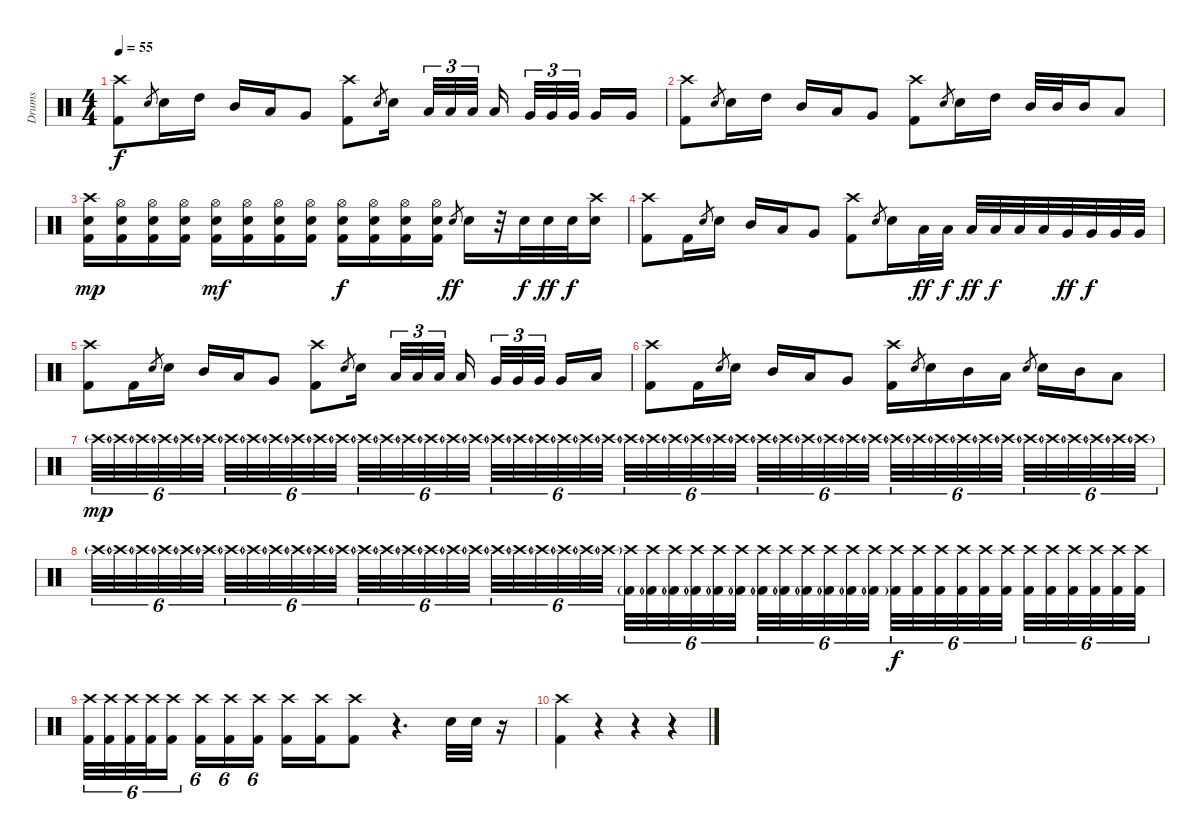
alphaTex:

\track ("Drums" "Drums") {instrument percussion}
\staff {score}
\articulation defaults
\ts (4 4)
\tempo 55
\clef neutral
\ks c
("Crash high (hit)" "Kick (hit) 2").8{dy f} "Snare (hit) 2".8{gr} "Snare (hit) 2".16 "High Tom (hit)".16 "Mid Tom (hit)".16 "Low Tom (hit)".16 "Very Low Tom (hit)".8 ("Crash high (hit)" "Kick (hit) 2").8 "Snare (hit) 2".8{gr} "Snare (hit) 2".16 "Low Tom (hit)".32{tu (3 2)} "Low Tom (hit)".32{tu (3 2)} "Low Tom (hit)".32{tu (3 2)} "Low Tom (hit)".16 "Very Low Tom (hit)".32{tu (3 2)} "Very Low Tom (hit)".32{tu (3 2)} "Very Low Tom (hit)".32{tu (3 2)} "Very Low Tom (hit)".16 "Very Low Tom (hit)".16 |
("Crash high (hit)" "Kick (hit) 2").8 "Snare (hit) 2".8{gr} "Snare (hit) 2".16 "High Tom (hit)".16 "Mid Tom (hit)".16 "Low Tom (hit)".16 "Very Low Tom (hit)".8 ("Crash high (hit)" "Kick (hit) 2").8 "Snare (hit) 2".8{gr} "Snare (hit) 2".16 "High Tom (hit)".16 "Mid Tom (hit)".32 "Mid Tom (hit)".32 "Mid Tom (hit)".16 "Low Tom (hit)".8 |
("Crash high (hit)" "Snare (hit) 2" "Kick (hit) 2").16{dy mp} ("Hi-Hat (open)" "Snare (hit) 2" "Kick (hit) 2").16 ("Hi-Hat (open)" "Snare (hit) 2" "Kick (hit) 2").16 ("Hi-Hat (open)" "Snare (hit) 2" "Kick (hit) 2").16 ("Hi-Hat (open)" "Snare (hit) 2" "Kick (hit) 2").16{dy mf} ("Hi-Hat (open)" "Snare (hit) 2" "Kick (hit) 2").16 ("Hi-Hat (open)" "Snare (hit) 2" "Kick (hit) 2").16 ("Hi-Hat (open)" "Snare (hit) 2" "Kick (hit) 2").16 ("Hi-Hat (open)" "Snare (hit) 2" "Kick (hit) 2").16{dy f} ("Hi-Hat (open)" "Snare (hit) 2" "Kick (hit) 2").16 ("Hi-Hat (open)" "Snare (hit) 2" "Kick (hit) 2").16 ("Hi-Hat (open)" "Snare (hit) 2" "Kick (hit) 2").16 "Snare (hit) 2".8{gr dy ff} "Snare (hit) 2".16 r.32 "Snare (hit) 2".32{dy f} "Snare (hit) 2".32{dy ff} "Snare (hit) 2".32{dy f} ("Crash high (hit)" "Snare (hit) 2").16 |
("Crash high (hit)" "Kick (hit) 2").8 "Kick (hit) 2".16 "Snare (hit) 2".8{gr} "Snare (hit) 2".16 "Mid Tom (hit)".16 "Low Tom (hit)".16 "Very Low Tom (hit)".8 ("Crash high (hit)" "Kick (hit) 2").8 "Snare (hit) 2".8{gr} "Snare (hit) 2".16 "Low Tom (hit)".32{dy ff} "Low Tom (hit)".32{dy f} "Low Tom (hit)".32{dy ff} "Low Tom (hit)".32{dy f} "Low Tom (hit)".32 "Low Tom (hit)".32 "Very Low Tom (hit)".32{dy ff} "Very Low Tom (hit)".32{dy f} "Very Low Tom (hit)".32 "Very Low Tom (hit)".32 |
("Crash high (hit)" "Kick (hit) 2").8 "Kick (hit) 2".16 "Snare (hit) 2".8{gr} "Snare (hit) 2".16 "Mid Tom (hit)".16 "Low Tom (hit)".16 "Very Low Tom (hit)".8 ("Crash high (hit)" "Kick (hit) 2").8 "Snare (hit) 2".8{gr} "Snare (hit) 2".16 "Low Tom (hit)".32{tu (3 2)} "Low Tom (hit)".32{tu (3 2)} "Low Tom (hit)".32{tu (3 2)} "Low Tom (hit)".16 "Very Low Tom (hit)".32{tu (3 2)} "Very Low Tom (hit)".32{tu (3 2)} "Very Low Tom (hit)".32{tu (3 2)} "Very Low Tom (hit)".16 "Low Floor Tom (hit)".16 |
("Crash high (hit)" "Kick (hit) 2").8 "Kick (hit) 2".16 "Snare (hit) 2".8{gr} "Snare (hit) 2".16 "Mid Tom (hit)".16 "Low Tom (hit)".16 "Very Low Tom (hit)".8 ("Crash high (hit)" "Kick (hit) 2").16 "Snare (hit) 2".8{gr} "Snare (hit) 2".16 "Mid Tom (hit)".16 "Low Tom (hit)".16 "Snare (hit) 2".8{gr} "Snare (hit) 2".16 "Mid Tom (hit)".16 "Low Tom (hit)".8 |
"Crash high (hit)"{g}.32{tu (6 4) dy mp} "Crash high (hit)"{g}.32{tu (6 4)} "Crash high (hit)"{g}.32{tu (6 4)} "Crash high (hit)"{g}.32{tu (6 4)} "Crash high (hit)"{g}.32{tu (6 4)} "Crash high (hit)"{g}.32{tu (6 4)} "Crash high (hit)"{g}.32{tu (6 4)} "Crash high (hit)"{g}.32{tu (6 4)} "Crash high (hit)"{g}.32{tu (6 4)} "Crash high (hit)"{g}.32{tu (6 4)} "Crash high (hit)"{g}.32{tu (6 4)} "Crash high (hit)"{g}.32{tu (6 4)} "Crash high (hit)"{g}.32{tu (6 4)} "Crash high (hit)"{g}.32{tu (6 4)} "Crash high (hit)"{g}.32{tu (6 4)} "Crash high (hit)"{g}.32{tu (6 4)} "Crash high (hit)"{g}.32{tu (6 4)} "Crash high (hit)"{g}.32{tu (6 4)} "Crash high (hit)"{g}.32{tu (6 4)} "Crash high (hit)"{g}.32{tu (6 4)} "Crash high (hit)"{g}.32{tu (6 4)} "Crash high (hit)"{g}.32{tu (6 4)} "Crash high (hit)"{g}.32{tu (6 4)} "Crash high (hit)"{g}.32{tu (6 4)} "Crash high (hit)"{g}.32{tu (6 4)} "Crash high (hit)"{g}.32{tu (6 4)} "Crash high (hit)"{g}.32{tu (6 4)} "Crash high (hit)"{g}.32{tu (6 4)} "Crash high (hit)"{g}.32{tu (6 4)} "Crash high (hit)"{g}.32{tu (6 4)} "Crash high (hit)"{g}.32{tu (6 4)} "Crash high (hit)"{g}.32{tu (6 4)} "Crash high (hit)"{g}.32{tu (6 4)} "Crash high (hit)"{g}.32{tu (6 4)} "Crash high (hit)"{g}.32{tu (6 4)} "Crash high (hit)"{g}.32{tu (6 4)} "Crash high (hit)"{g}.32{tu (6 4)} "Crash high (hit)"{g}.32{tu (6 4)} "Crash high (hit)"{g}.32{tu (6 4)} "Crash high (hit)"{g}.32{tu (6 4)} "Crash high (hit)"{g}.32{tu (6 4)} "Crash high (hit)"{g}.32{tu (6 4)} "Crash high (hit)"{g}.32{tu (6 4)} "Crash high (hit)"{g}.32{tu (6 4)} "Crash high (hit)"{g}.32{tu (6 4)} "Crash high (hit)"{g}.32{tu (6 4)} "Crash high (hit)"{g}.32{tu (6 4)} "Crash high (hit)"{g}.32{tu (6 4)} |
"Crash high (hit)"{g}.32{tu (6 4)} "Crash high (hit)"{g}.32{tu (6 4)} "Crash high (hit)"{g}.32{tu (6 4)} "Crash high (hit)"{g}.32{tu (6 4)} "Crash high (hit)"{g}.32{tu (6 4)} "Crash high (hit)"{g}.32{tu (6 4)} "Crash high (hit)"{g}.32{tu (6 4)} "Crash high (hit)"{g}.32{tu (6 4)} "Crash high (hit)"{g}.32{tu (6 4)} "Crash high (hit)"{g}.32{tu (6 4)} "Crash high (hit)"{g}.32{tu (6 4)} "Crash high (hit)"{g}.32{tu (6 4)} "Crash high (hit)"{g}.32{tu (6 4)} "Crash high (hit)"{g}.32{tu (6 4)} "Crash high (hit)"{g}.32{tu (6 4)} "Crash high (hit)"{g}.32{tu (6 4)} "Crash high (hit)"{g}.32{tu (6 4)} "Crash high (hit)"{g}.32{tu (6 4)} "Crash high (hit)"{g}.32{tu (6 4)} "Crash high (hit)"{g}.32{tu (6 4)} "Crash high (hit)"{g}.32{tu (6 4)} "Crash high (hit)"{g}.32{tu (6 4)} "Crash high (hit)"{g}.32{tu (6 4)} "Crash high (hit)"{g}.32{tu (6 4)} ("Crash high (hit)" "Kick (hit) 2"{g}).32{tu (6 4)} ("Crash high (hit)" "Kick (hit) 2"{g}).32{tu (6 4)} ("Crash high (hit)" "Kick (hit) 2"{g}).32{tu (6 4)} ("Crash high (hit)" "Kick (hit) 2"{g}).32{tu (6 4)} ("Crash high (hit)" "Kick (hit) 2"{g}).32{tu (6 4)} ("Crash high (hit)" "Kick (hit) 2"{g}).32{tu (6 4)} ("Crash high (hit)" "Kick (hit) 2"{g}).32{tu (6 4)} ("Crash high (hit)" "Kick (hit) 2"{g}).32{tu (6 4)} ("Crash high (hit)" "Kick (hit) 2"{g}).32{tu (6 4)} ("Crash high (hit)" "Kick (hit) 2"{g}).32{tu (6 4)} ("Crash high (hit)" "Kick (hit) 2"{g}).32{tu (6 4)} ("Crash high (hit)" "Kick (hit) 2"{g}).32{tu (6 4)} ("Crash high (hit)" "Kick (hit) 2").32{tu (6 4) dy f} ("Crash high (hit)" "Kick (hit) 2").32{tu (6 4)} ("Crash high (hit)" "Kick (hit) 2").32{tu (6 4)} ("Crash high (hit)" "Kick (hit) 2").32{tu (6 4)} ("Crash high (hit)" "Kick (hit) 2").32{tu (6 4)} ("Crash high (hit)" "Kick (hit) 2").32{tu (6 4)} ("Crash high (hit)" "Kick (hit) 2").32{tu (6 4)} ("Crash high (hit)" "Kick (hit) 2").32{tu (6 4)} ("Crash high (hit)" "Kick (hit) 2").32{tu (6 4)} ("Crash high (hit)" "Kick (hit) 2").32{tu (6 4)} ("Crash high (hit)" "Kick (hit) 2").32{tu (6 4)} ("Crash high (hit)" "Kick (hit) 2").32{tu (6 4)} |
("Crash high (hit)" "Kick (hit) 2").32{tu (6 4)} ("Crash high (hit)" "Kick (hit) 2").32{tu (6 4)} ("Crash high (hit)" "Kick (hit) 2").32{tu (6 4)} ("Crash high (hit)" "Kick (hit) 2").32{tu (6 4)} ("Crash high (hit)" "Kick (hit) 2").16{tu (6 4)} ("Crash high (hit)" "Kick (hit) 2").16{tu (6 4)} ("Crash high (hit)" "Kick (hit) 2").16{tu (6 4)} ("Crash high (hit)" "Kick (hit) 2").16{tu (6 4)} ("Crash high (hit)" "Kick (hit) 2").16 ("Crash high (hit)" "Kick (hit) 2").16 ("Crash high (hit)" "Kick (hit) 2").8 r.4{d} "Snare (hit) 2".32 "Snare (hit) 2".32 r.16 |
("Crash high (hit)" "Kick (hit) 2").4 r.4 r.4 r.4
